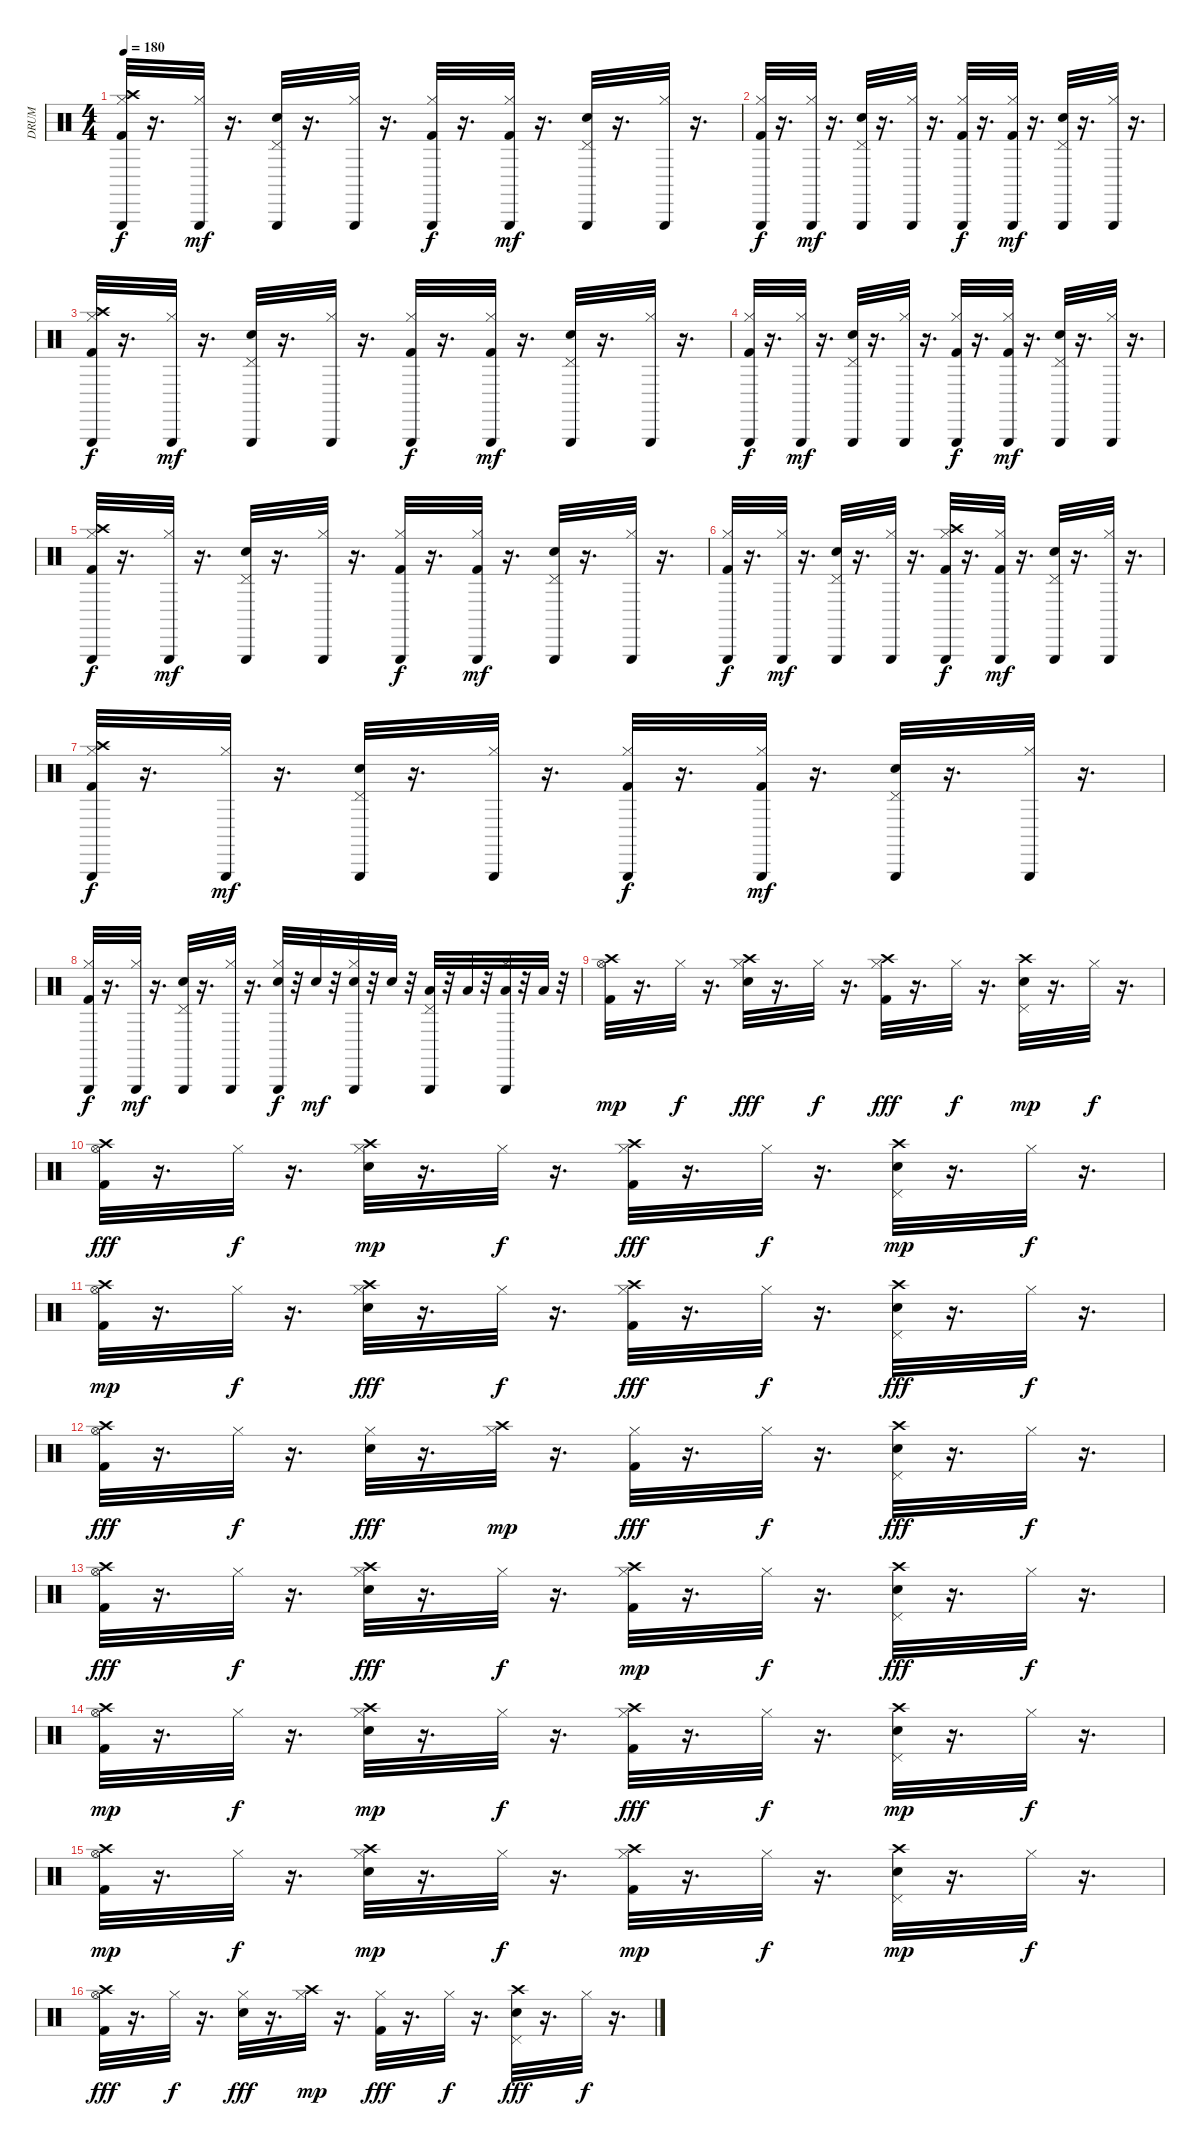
\track ("DRUM" "DRUM") {instrument percussion}
\staff {score}
\articulation defaults
\ts (4 4)
\tempo 180
\clef neutral
\ks c
("Triangle (hit)" "Hi-Hat (closed)" "Kick (hit) 2" "Crash high (hit)").32{dy f} r.16{d} ("Hi-Hat (closed)" "Triangle (hit)").32{dy mf} r.16{d} ("Pedal Hi-Hat (hit)" "Snare (hit) 2" "Triangle (hit)").32 r.16{d} ("Hi-Hat (closed)" "Triangle (hit)").32 r.16{d} ("Hi-Hat (closed)" "Kick (hit) 2" "Triangle (hit)").32{dy f} r.16{d} ("Kick (hit) 2" "Hi-Hat (closed)" "Triangle (hit)").32{dy mf} r.16{d} ("Snare (hit) 2" "Pedal Hi-Hat (hit)" "Triangle (hit)").32 r.16{d} ("Triangle (hit)" "Hi-Hat (closed)").32 r.16{d} |
("Triangle (hit)" "Hi-Hat (closed)" "Kick (hit) 2").32{dy f} r.16{d} ("Hi-Hat (closed)" "Triangle (hit)").32{dy mf} r.16{d} ("Pedal Hi-Hat (hit)" "Triangle (hit)" "Snare (hit) 2").32 r.16{d} ("Triangle (hit)" "Hi-Hat (closed)").32 r.16{d} ("Kick (hit) 2" "Hi-Hat (closed)" "Triangle (hit)").32{dy f} r.16{d} ("Triangle (hit)" "Hi-Hat (closed)" "Kick (hit) 2").32{dy mf} r.16{d} ("Snare (hit) 2" "Triangle (hit)" "Pedal Hi-Hat (hit)").32 r.16{d} ("Hi-Hat (closed)" "Triangle (hit)").32 r.16{d} |
("Crash high (hit)" "Triangle (hit)" "Kick (hit) 2" "Hi-Hat (closed)").32{dy f} r.16{d} ("Triangle (hit)" "Hi-Hat (closed)").32{dy mf} r.16{d} ("Pedal Hi-Hat (hit)" "Triangle (hit)" "Snare (hit) 2").32 r.16{d} ("Triangle (hit)" "Hi-Hat (closed)").32 r.16{d} ("Hi-Hat (closed)" "Triangle (hit)" "Kick (hit) 2").32{dy f} r.16{d} ("Kick (hit) 2" "Triangle (hit)" "Hi-Hat (closed)").32{dy mf} r.16{d} ("Snare (hit) 2" "Pedal Hi-Hat (hit)" "Triangle (hit)").32 r.16{d} ("Triangle (hit)" "Hi-Hat (closed)").32 r.16{d} |
("Kick (hit) 2" "Triangle (hit)" "Hi-Hat (closed)").32{dy f} r.16{d} ("Triangle (hit)" "Hi-Hat (closed)").32{dy mf} r.16{d} ("Pedal Hi-Hat (hit)" "Triangle (hit)" "Snare (hit) 2").32 r.16{d} ("Triangle (hit)" "Hi-Hat (closed)").32 r.16{d} ("Kick (hit) 2" "Hi-Hat (closed)" "Triangle (hit)").32{dy f} r.16{d} ("Kick (hit) 2" "Triangle (hit)" "Hi-Hat (closed)").32{dy mf} r.16{d} ("Pedal Hi-Hat (hit)" "Snare (hit) 2" "Triangle (hit)").32 r.16{d} ("Hi-Hat (closed)" "Triangle (hit)").32 r.16{d} |
("Hi-Hat (closed)" "Kick (hit) 2" "Triangle (hit)" "Crash high (hit)").32{dy f} r.16{d} ("Triangle (hit)" "Hi-Hat (closed)").32{dy mf} r.16{d} ("Triangle (hit)" "Pedal Hi-Hat (hit)" "Snare (hit) 2").32 r.16{d} ("Triangle (hit)" "Hi-Hat (closed)").32 r.16{d} ("Hi-Hat (closed)" "Kick (hit) 2" "Triangle (hit)").32{dy f} r.16{d} ("Hi-Hat (closed)" "Kick (hit) 2" "Triangle (hit)").32{dy mf} r.16{d} ("Pedal Hi-Hat (hit)" "Triangle (hit)" "Snare (hit) 2").32 r.16{d} ("Hi-Hat (closed)" "Triangle (hit)").32 r.16{d} |
("Hi-Hat (closed)" "Triangle (hit)" "Kick (hit) 2").32{dy f} r.16{d} ("Triangle (hit)" "Hi-Hat (closed)").32{dy mf} r.16{d} ("Triangle (hit)" "Pedal Hi-Hat (hit)" "Snare (hit) 2").32 r.16{d} ("Triangle (hit)" "Hi-Hat (closed)").32 r.16{d} ("Hi-Hat (closed)" "Kick (hit) 2" "Triangle (hit)" "Crash high (hit)").32{dy f} r.16{d} ("Kick (hit) 2" "Hi-Hat (closed)" "Triangle (hit)").32{dy mf} r.16{d} ("Pedal Hi-Hat (hit)" "Snare (hit) 2" "Triangle (hit)").32 r.16{d} ("Triangle (hit)" "Hi-Hat (closed)").32 r.16{d} |
("Triangle (hit)" "Kick (hit) 2" "Hi-Hat (closed)" "Crash high (hit)").32{dy f} r.16{d} ("Triangle (hit)" "Hi-Hat (closed)").32{dy mf} r.16{d} ("Snare (hit) 2" "Pedal Hi-Hat (hit)" "Triangle (hit)").32 r.16{d} ("Hi-Hat (closed)" "Triangle (hit)").32 r.16{d} ("Hi-Hat (closed)" "Triangle (hit)" "Kick (hit) 2").32{dy f} r.16{d} ("Hi-Hat (closed)" "Triangle (hit)" "Kick (hit) 2").32{dy mf} r.16{d} ("Triangle (hit)" "Snare (hit) 2" "Pedal Hi-Hat (hit)").32 r.16{d} ("Triangle (hit)" "Hi-Hat (closed)").32 r.16{d} |
("Triangle (hit)" "Hi-Hat (closed)" "Kick (hit) 2").32{dy f} r.16{d} ("Triangle (hit)" "Hi-Hat (closed)").32{dy mf} r.16{d} ("Triangle (hit)" "Pedal Hi-Hat (hit)" "Snare (hit) 2").32 r.16{d} ("Triangle (hit)" "Hi-Hat (closed)").32 r.16{d} ("Triangle (hit)" "Hi-Hat (closed)" "Snare (hit) 2").32{dy f} r.32 "Snare (hit) 2".32{dy mf} r.32 ("Hi-Hat (closed)" "Snare (hit) 2" "Triangle (hit)").32 r.32 "Snare (hit) 2".32 r.32 ("Low Floor Tom (hit)" "Triangle (hit)" "Pedal Hi-Hat (hit)").32 r.32 "Low Floor Tom (hit)".32 r.32 ("Triangle (hit)" "Hi-Hat (closed)" "Low Floor Tom (hit)").32 r.32 "Low Floor Tom (hit)".32 r.32 |
("Hi-Hat (open)" "Crash high (hit)" "Kick (hit) 2").32{dy mp} r.16{d} "Hi-Hat (closed)".32{dy f} r.16{d} ("Crash high (hit)" "Hi-Hat (closed)" "Snare (hit) 2").32{dy fff} r.16{d} "Hi-Hat (closed)".32{dy f} r.16{d} ("Kick (hit) 2" "Crash high (hit)" "Hi-Hat (closed)").32{dy fff} r.16{d} "Hi-Hat (closed)".32{dy f} r.16{d} ("Pedal Hi-Hat (hit)" "Snare (hit) 2" "Crash high (hit)").32{dy mp} r.16{d} "Hi-Hat (closed)".32{dy f} r.16{d} |
("Crash high (hit)" "Hi-Hat (open)" "Kick (hit) 2").32{dy fff} r.16{d} "Hi-Hat (closed)".32{dy f} r.16{d} ("Snare (hit) 2" "Hi-Hat (closed)" "Crash high (hit)").32{dy mp} r.16{d} "Hi-Hat (closed)".32{dy f} r.16{d} ("Crash high (hit)" "Hi-Hat (closed)" "Kick (hit) 2").32{dy fff} r.16{d} "Hi-Hat (closed)".32{dy f} r.16{d} ("Pedal Hi-Hat (hit)" "Snare (hit) 2" "Crash high (hit)").32{dy mp} r.16{d} "Hi-Hat (closed)".32{dy f} r.16{d} |
("Hi-Hat (open)" "Crash high (hit)" "Kick (hit) 2").32{dy mp} r.16{d} "Hi-Hat (closed)".32{dy f} r.16{d} ("Crash high (hit)" "Snare (hit) 2" "Hi-Hat (closed)").32{dy fff} r.16{d} "Hi-Hat (closed)".32{dy f} r.16{d} ("Kick (hit) 2" "Crash high (hit)" "Hi-Hat (closed)").32{dy fff} r.16{d} "Hi-Hat (closed)".32{dy f} r.16{d} ("Snare (hit) 2" "Crash high (hit)" "Pedal Hi-Hat (hit)").32{dy fff} r.16{d} "Hi-Hat (closed)".32{dy f} r.16{d} |
("Crash high (hit)" "Hi-Hat (open)" "Kick (hit) 2").32{dy fff} r.16{d} "Hi-Hat (closed)".32{dy f} r.16{d} ("Snare (hit) 2" "Hi-Hat (closed)").32{dy fff} r.16{d} ("Hi-Hat (closed)" "Crash high (hit)").32{dy mp} r.16{d} ("Kick (hit) 2" "Hi-Hat (closed)").32{dy fff} r.16{d} "Hi-Hat (closed)".32{dy f} r.16{d} ("Crash high (hit)" "Pedal Hi-Hat (hit)" "Snare (hit) 2").32{dy fff} r.16{d} "Hi-Hat (closed)".32{dy f} r.16{d} |
("Crash high (hit)" "Hi-Hat (open)" "Kick (hit) 2").32{dy fff} r.16{d} "Hi-Hat (closed)".32{dy f} r.16{d} ("Crash high (hit)" "Hi-Hat (closed)" "Snare (hit) 2").32{dy fff} r.16{d} "Hi-Hat (closed)".32{dy f} r.16{d} ("Hi-Hat (closed)" "Crash high (hit)" "Kick (hit) 2").32{dy mp} r.16{d} "Hi-Hat (closed)".32{dy f} r.16{d} ("Crash high (hit)" "Pedal Hi-Hat (hit)" "Snare (hit) 2").32{dy fff} r.16{d} "Hi-Hat (closed)".32{dy f} r.16{d} |
("Hi-Hat (open)" "Kick (hit) 2" "Crash high (hit)").32{dy mp} r.16{d} "Hi-Hat (closed)".32{dy f} r.16{d} ("Hi-Hat (closed)" "Crash high (hit)" "Snare (hit) 2").32{dy mp} r.16{d} "Hi-Hat (closed)".32{dy f} r.16{d} ("Kick (hit) 2" "Crash high (hit)" "Hi-Hat (closed)").32{dy fff} r.16{d} "Hi-Hat (closed)".32{dy f} r.16{d} ("Pedal Hi-Hat (hit)" "Crash high (hit)" "Snare (hit) 2").32{dy mp} r.16{d} "Hi-Hat (closed)".32{dy f} r.16{d} |
("Hi-Hat (open)" "Kick (hit) 2" "Crash high (hit)").32{dy mp} r.16{d} "Hi-Hat (closed)".32{dy f} r.16{d} ("Hi-Hat (closed)" "Crash high (hit)" "Snare (hit) 2").32{dy mp} r.16{d} "Hi-Hat (closed)".32{dy f} r.16{d} ("Hi-Hat (closed)" "Crash high (hit)" "Kick (hit) 2").32{dy mp} r.16{d} "Hi-Hat (closed)".32{dy f} r.16{d} ("Pedal Hi-Hat (hit)" "Crash high (hit)" "Snare (hit) 2").32{dy mp} r.16{d} "Hi-Hat (closed)".32{dy f} r.16{d} |
("Crash high (hit)" "Hi-Hat (open)" "Kick (hit) 2").32{dy fff} r.16{d} "Hi-Hat (closed)".32{dy f} r.16{d} ("Hi-Hat (closed)" "Snare (hit) 2").32{dy fff} r.16{d} ("Hi-Hat (closed)" "Crash high (hit)").32{dy mp} r.16{d} ("Kick (hit) 2" "Hi-Hat (closed)").32{dy fff} r.16{d} "Hi-Hat (closed)".32{dy f} r.16{d} ("Crash high (hit)" "Snare (hit) 2" "Pedal Hi-Hat (hit)").32{dy fff} r.16{d} "Hi-Hat (closed)".32{dy f} r.16{d}
